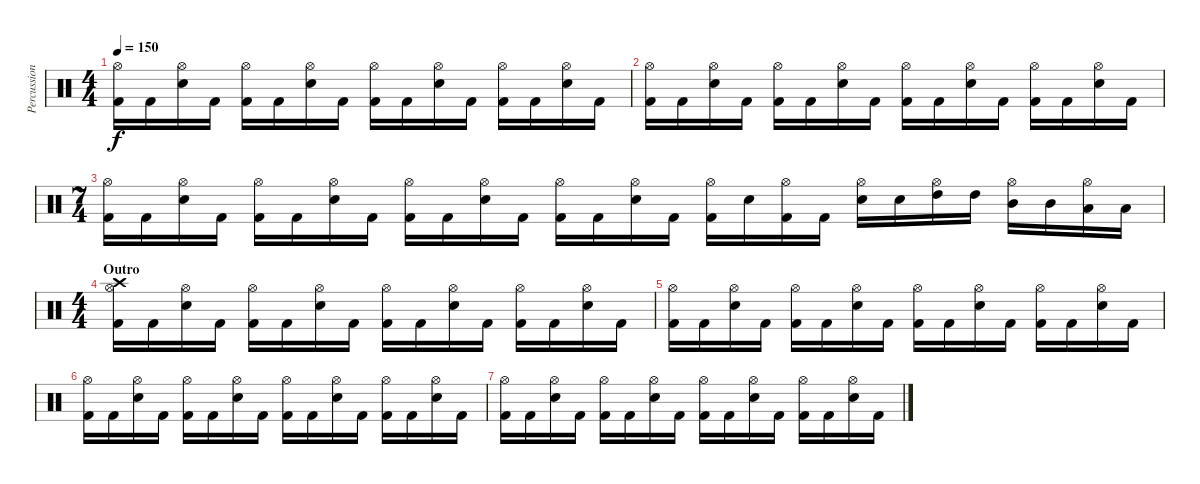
\track ("Percussions" "Percussion") {instrument percussion}
\staff {score}
\articulation defaults
\ts (4 4)
\tempo 150
\clef neutral
\ks c
("Hi-Hat (open)" "Kick (hit) 2").16{dy f} "Kick (hit) 2".16 ("Hi-Hat (open)" "Electric Snare (hit)").16 "Kick (hit) 2".16 ("Hi-Hat (open)" "Kick (hit) 2").16 "Kick (hit) 2".16 ("Hi-Hat (open)" "Electric Snare (hit)").16 "Kick (hit) 2".16 ("Hi-Hat (open)" "Kick (hit) 2").16 "Kick (hit) 2".16 ("Hi-Hat (open)" "Electric Snare (hit)").16 "Kick (hit) 2".16 ("Hi-Hat (open)" "Kick (hit) 2").16 "Kick (hit) 2".16 ("Hi-Hat (open)" "Electric Snare (hit)").16 "Kick (hit) 2".16 |
("Hi-Hat (open)" "Kick (hit) 2").16 "Kick (hit) 2".16 ("Hi-Hat (open)" "Electric Snare (hit)").16 "Kick (hit) 2".16 ("Hi-Hat (open)" "Kick (hit) 2").16 "Kick (hit) 2".16 ("Hi-Hat (open)" "Electric Snare (hit)").16 "Kick (hit) 2".16 ("Hi-Hat (open)" "Kick (hit) 2").16 "Kick (hit) 2".16 ("Hi-Hat (open)" "Electric Snare (hit)").16 "Kick (hit) 2".16 ("Hi-Hat (open)" "Kick (hit) 2").16 "Kick (hit) 2".16 ("Hi-Hat (open)" "Electric Snare (hit)").16 "Kick (hit) 2".16 |
\ts (7 4)
("Hi-Hat (open)" "Kick (hit) 2").16 "Kick (hit) 2".16 ("Hi-Hat (open)" "Electric Snare (hit)").16 "Kick (hit) 2".16 ("Hi-Hat (open)" "Kick (hit) 2").16 "Kick (hit) 2".16 ("Hi-Hat (open)" "Electric Snare (hit)").16 "Kick (hit) 2".16 ("Hi-Hat (open)" "Kick (hit) 2").16 "Kick (hit) 2".16 ("Hi-Hat (open)" "Electric Snare (hit)").16 "Kick (hit) 2".16 ("Hi-Hat (open)" "Kick (hit) 2").16 "Kick (hit) 2".16 ("Hi-Hat (open)" "Electric Snare (hit)").16 "Kick (hit) 2".16 ("Hi-Hat (open)" "Kick (hit) 2").16 "Electric Snare (hit)".16 ("Hi-Hat (open)" "Kick (hit) 2").16 "Kick (hit) 2".16 ("Hi-Hat (open)" "Electric Snare (hit)").16 "Electric Snare (hit)".16 ("Hi-Hat (open)" "High Tom (hit)").16 "High Tom (hit)".16 ("Hi-Hat (open)" "Mid Tom (hit)").16 "Mid Tom (hit)".16 ("Hi-Hat (open)" "Low Tom (hit)").16 "Low Tom (hit)".16 |
\ts (4 4)
\section ("" "Outro")
("Crash high (hit)" "Hi-Hat (open)" "Kick (hit) 2").16 "Kick (hit) 2".16 ("Hi-Hat (open)" "Electric Snare (hit)").16 "Kick (hit) 2".16 ("Hi-Hat (open)" "Kick (hit) 2").16 "Kick (hit) 2".16 ("Hi-Hat (open)" "Electric Snare (hit)").16 "Kick (hit) 2".16 ("Hi-Hat (open)" "Kick (hit) 2").16 "Kick (hit) 2".16 ("Hi-Hat (open)" "Electric Snare (hit)").16 "Kick (hit) 2".16 ("Hi-Hat (open)" "Kick (hit) 2").16 "Kick (hit) 2".16 ("Hi-Hat (open)" "Electric Snare (hit)").16 "Kick (hit) 2".16 |
("Hi-Hat (open)" "Kick (hit) 2").16 "Kick (hit) 2".16 ("Hi-Hat (open)" "Electric Snare (hit)").16 "Kick (hit) 2".16 ("Hi-Hat (open)" "Kick (hit) 2").16 "Kick (hit) 2".16 ("Hi-Hat (open)" "Electric Snare (hit)").16 "Kick (hit) 2".16 ("Hi-Hat (open)" "Kick (hit) 2").16 "Kick (hit) 2".16 ("Hi-Hat (open)" "Electric Snare (hit)").16 "Kick (hit) 2".16 ("Hi-Hat (open)" "Kick (hit) 2").16 "Kick (hit) 2".16 ("Hi-Hat (open)" "Electric Snare (hit)").16 "Kick (hit) 2".16 |
("Hi-Hat (open)" "Kick (hit) 2").16 "Kick (hit) 2".16 ("Hi-Hat (open)" "Electric Snare (hit)").16 "Kick (hit) 2".16 ("Hi-Hat (open)" "Kick (hit) 2").16 "Kick (hit) 2".16 ("Hi-Hat (open)" "Electric Snare (hit)").16 "Kick (hit) 2".16 ("Hi-Hat (open)" "Kick (hit) 2").16 "Kick (hit) 2".16 ("Hi-Hat (open)" "Electric Snare (hit)").16 "Kick (hit) 2".16 ("Hi-Hat (open)" "Kick (hit) 2").16 "Kick (hit) 2".16 ("Hi-Hat (open)" "Electric Snare (hit)").16 "Kick (hit) 2".16 |
("Hi-Hat (open)" "Kick (hit) 2").16 "Kick (hit) 2".16 ("Hi-Hat (open)" "Electric Snare (hit)").16 "Kick (hit) 2".16 ("Hi-Hat (open)" "Kick (hit) 2").16 "Kick (hit) 2".16 ("Hi-Hat (open)" "Electric Snare (hit)").16 "Kick (hit) 2".16 ("Hi-Hat (open)" "Kick (hit) 2").16 "Kick (hit) 2".16 ("Hi-Hat (open)" "Electric Snare (hit)").16 "Kick (hit) 2".16 ("Hi-Hat (open)" "Kick (hit) 2").16 "Kick (hit) 2".16 ("Hi-Hat (open)" "Electric Snare (hit)").16 "Kick (hit) 2".16
